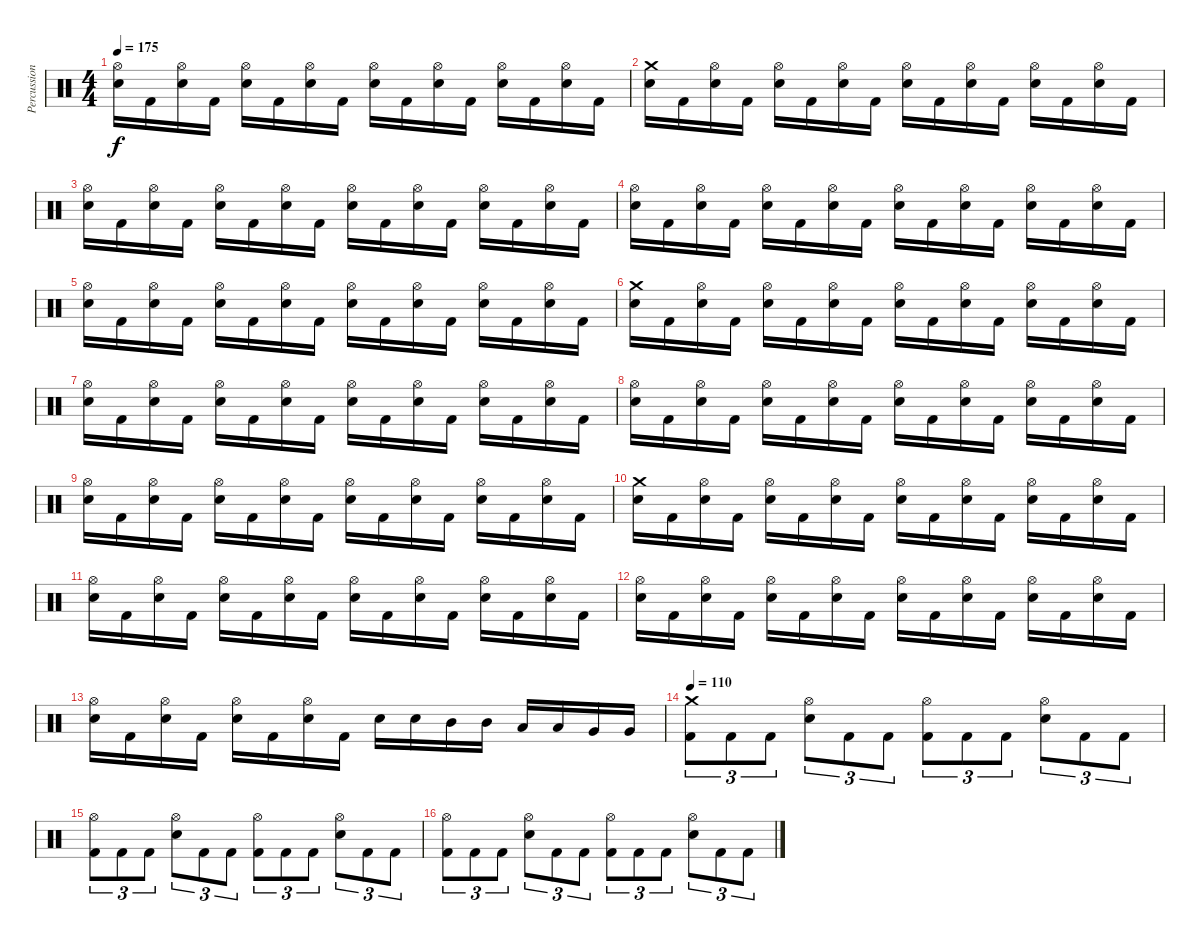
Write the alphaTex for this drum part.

\track ("Percussion" "Percussion") {instrument percussion}
\staff {score}
\articulation defaults
\ts (4 4)
\tempo 175
\clef neutral
\ks c
("Hi-Hat (open)" "Snare (hit) 2").16{dy f} "Kick (hit) 2".16 ("Hi-Hat (open)" "Snare (hit) 2").16 "Kick (hit) 2".16 ("Hi-Hat (open)" "Snare (hit) 2").16 "Kick (hit) 2".16 ("Hi-Hat (open)" "Snare (hit) 2").16 "Kick (hit) 2".16 ("Hi-Hat (open)" "Snare (hit) 2").16 "Kick (hit) 2".16 ("Hi-Hat (open)" "Snare (hit) 2").16 "Kick (hit) 2".16 ("Hi-Hat (open)" "Snare (hit) 2").16 "Kick (hit) 2".16 ("Hi-Hat (open)" "Snare (hit) 2").16 "Kick (hit) 2".16 |
("Crash medium (hit)" "Snare (hit) 2").16 "Kick (hit) 2".16 ("Hi-Hat (open)" "Snare (hit) 2").16 "Kick (hit) 2".16 ("Hi-Hat (open)" "Snare (hit) 2").16 "Kick (hit) 2".16 ("Hi-Hat (open)" "Snare (hit) 2").16 "Kick (hit) 2".16 ("Hi-Hat (open)" "Snare (hit) 2").16 "Kick (hit) 2".16 ("Hi-Hat (open)" "Snare (hit) 2").16 "Kick (hit) 2".16 ("Hi-Hat (open)" "Snare (hit) 2").16 "Kick (hit) 2".16 ("Hi-Hat (open)" "Snare (hit) 2").16 "Kick (hit) 2".16 |
("Hi-Hat (open)" "Snare (hit) 2").16 "Kick (hit) 2".16 ("Hi-Hat (open)" "Snare (hit) 2").16 "Kick (hit) 2".16 ("Hi-Hat (open)" "Snare (hit) 2").16 "Kick (hit) 2".16 ("Hi-Hat (open)" "Snare (hit) 2").16 "Kick (hit) 2".16 ("Hi-Hat (open)" "Snare (hit) 2").16 "Kick (hit) 2".16 ("Hi-Hat (open)" "Snare (hit) 2").16 "Kick (hit) 2".16 ("Hi-Hat (open)" "Snare (hit) 2").16 "Kick (hit) 2".16 ("Hi-Hat (open)" "Snare (hit) 2").16 "Kick (hit) 2".16 |
("Hi-Hat (open)" "Snare (hit) 2").16 "Kick (hit) 2".16 ("Hi-Hat (open)" "Snare (hit) 2").16 "Kick (hit) 2".16 ("Hi-Hat (open)" "Snare (hit) 2").16 "Kick (hit) 2".16 ("Hi-Hat (open)" "Snare (hit) 2").16 "Kick (hit) 2".16 ("Hi-Hat (open)" "Snare (hit) 2").16 "Kick (hit) 2".16 ("Hi-Hat (open)" "Snare (hit) 2").16 "Kick (hit) 2".16 ("Hi-Hat (open)" "Snare (hit) 2").16 "Kick (hit) 2".16 ("Hi-Hat (open)" "Snare (hit) 2").16 "Kick (hit) 2".16 |
("Hi-Hat (open)" "Snare (hit) 2").16 "Kick (hit) 2".16 ("Hi-Hat (open)" "Snare (hit) 2").16 "Kick (hit) 2".16 ("Hi-Hat (open)" "Snare (hit) 2").16 "Kick (hit) 2".16 ("Hi-Hat (open)" "Snare (hit) 2").16 "Kick (hit) 2".16 ("Hi-Hat (open)" "Snare (hit) 2").16 "Kick (hit) 2".16 ("Hi-Hat (open)" "Snare (hit) 2").16 "Kick (hit) 2".16 ("Hi-Hat (open)" "Snare (hit) 2").16 "Kick (hit) 2".16 ("Hi-Hat (open)" "Snare (hit) 2").16 "Kick (hit) 2".16 |
("Crash medium (hit)" "Snare (hit) 2").16 "Kick (hit) 2".16 ("Hi-Hat (open)" "Snare (hit) 2").16 "Kick (hit) 2".16 ("Hi-Hat (open)" "Snare (hit) 2").16 "Kick (hit) 2".16 ("Hi-Hat (open)" "Snare (hit) 2").16 "Kick (hit) 2".16 ("Hi-Hat (open)" "Snare (hit) 2").16 "Kick (hit) 2".16 ("Hi-Hat (open)" "Snare (hit) 2").16 "Kick (hit) 2".16 ("Hi-Hat (open)" "Snare (hit) 2").16 "Kick (hit) 2".16 ("Hi-Hat (open)" "Snare (hit) 2").16 "Kick (hit) 2".16 |
("Hi-Hat (open)" "Snare (hit) 2").16 "Kick (hit) 2".16 ("Hi-Hat (open)" "Snare (hit) 2").16 "Kick (hit) 2".16 ("Hi-Hat (open)" "Snare (hit) 2").16 "Kick (hit) 2".16 ("Hi-Hat (open)" "Snare (hit) 2").16 "Kick (hit) 2".16 ("Hi-Hat (open)" "Snare (hit) 2").16 "Kick (hit) 2".16 ("Hi-Hat (open)" "Snare (hit) 2").16 "Kick (hit) 2".16 ("Hi-Hat (open)" "Snare (hit) 2").16 "Kick (hit) 2".16 ("Hi-Hat (open)" "Snare (hit) 2").16 "Kick (hit) 2".16 |
("Hi-Hat (open)" "Snare (hit) 2").16 "Kick (hit) 2".16 ("Hi-Hat (open)" "Snare (hit) 2").16 "Kick (hit) 2".16 ("Hi-Hat (open)" "Snare (hit) 2").16 "Kick (hit) 2".16 ("Hi-Hat (open)" "Snare (hit) 2").16 "Kick (hit) 2".16 ("Hi-Hat (open)" "Snare (hit) 2").16 "Kick (hit) 2".16 ("Hi-Hat (open)" "Snare (hit) 2").16 "Kick (hit) 2".16 ("Hi-Hat (open)" "Snare (hit) 2").16 "Kick (hit) 2".16 ("Hi-Hat (open)" "Snare (hit) 2").16 "Kick (hit) 2".16 |
("Hi-Hat (open)" "Snare (hit) 2").16 "Kick (hit) 2".16 ("Hi-Hat (open)" "Snare (hit) 2").16 "Kick (hit) 2".16 ("Hi-Hat (open)" "Snare (hit) 2").16 "Kick (hit) 2".16 ("Hi-Hat (open)" "Snare (hit) 2").16 "Kick (hit) 2".16 ("Hi-Hat (open)" "Snare (hit) 2").16 "Kick (hit) 2".16 ("Hi-Hat (open)" "Snare (hit) 2").16 "Kick (hit) 2".16 ("Hi-Hat (open)" "Snare (hit) 2").16 "Kick (hit) 2".16 ("Hi-Hat (open)" "Snare (hit) 2").16 "Kick (hit) 2".16 |
("Crash medium (hit)" "Snare (hit) 2").16 "Kick (hit) 2".16 ("Hi-Hat (open)" "Snare (hit) 2").16 "Kick (hit) 2".16 ("Hi-Hat (open)" "Snare (hit) 2").16 "Kick (hit) 2".16 ("Hi-Hat (open)" "Snare (hit) 2").16 "Kick (hit) 2".16 ("Hi-Hat (open)" "Snare (hit) 2").16 "Kick (hit) 2".16 ("Hi-Hat (open)" "Snare (hit) 2").16 "Kick (hit) 2".16 ("Hi-Hat (open)" "Snare (hit) 2").16 "Kick (hit) 2".16 ("Hi-Hat (open)" "Snare (hit) 2").16 "Kick (hit) 2".16 |
("Hi-Hat (open)" "Snare (hit) 2").16 "Kick (hit) 2".16 ("Hi-Hat (open)" "Snare (hit) 2").16 "Kick (hit) 2".16 ("Hi-Hat (open)" "Snare (hit) 2").16 "Kick (hit) 2".16 ("Hi-Hat (open)" "Snare (hit) 2").16 "Kick (hit) 2".16 ("Hi-Hat (open)" "Snare (hit) 2").16 "Kick (hit) 2".16 ("Hi-Hat (open)" "Snare (hit) 2").16 "Kick (hit) 2".16 ("Hi-Hat (open)" "Snare (hit) 2").16 "Kick (hit) 2".16 ("Hi-Hat (open)" "Snare (hit) 2").16 "Kick (hit) 2".16 |
("Hi-Hat (open)" "Snare (hit) 2").16 "Kick (hit) 2".16 ("Hi-Hat (open)" "Snare (hit) 2").16 "Kick (hit) 2".16 ("Hi-Hat (open)" "Snare (hit) 2").16 "Kick (hit) 2".16 ("Hi-Hat (open)" "Snare (hit) 2").16 "Kick (hit) 2".16 ("Hi-Hat (open)" "Snare (hit) 2").16 "Kick (hit) 2".16 ("Hi-Hat (open)" "Snare (hit) 2").16 "Kick (hit) 2".16 ("Hi-Hat (open)" "Snare (hit) 2").16 "Kick (hit) 2".16 ("Hi-Hat (open)" "Snare (hit) 2").16 "Kick (hit) 2".16 |
("Hi-Hat (open)" "Snare (hit) 2").16 "Kick (hit) 2".16 ("Hi-Hat (open)" "Snare (hit) 2").16 "Kick (hit) 2".16 ("Hi-Hat (open)" "Snare (hit) 2").16 "Kick (hit) 2".16 ("Hi-Hat (open)" "Snare (hit) 2").16 "Kick (hit) 2".16 "Snare (hit) 2".16 "Snare (hit) 2".16 "Mid Tom (hit)".16 "Mid Tom (hit)".16 "Low Tom (hit)".16 "Low Tom (hit)".16 "Very Low Tom (hit)".16 "Very Low Tom (hit)".16 |
\tempo 110
("Crash medium (hit)" "Kick (hit) 2").8{tu (3 2)} "Kick (hit) 2".8{tu (3 2)} "Kick (hit) 2".8{tu (3 2)} ("Hi-Hat (open)" "Snare (hit) 2").8{tu (3 2)} "Kick (hit) 2".8{tu (3 2)} "Kick (hit) 2".8{tu (3 2)} ("Hi-Hat (open)" "Kick (hit) 2").8{tu (3 2)} "Kick (hit) 2".8{tu (3 2)} "Kick (hit) 2".8{tu (3 2)} ("Hi-Hat (open)" "Snare (hit) 2").8{tu (3 2)} "Kick (hit) 2".8{tu (3 2)} "Kick (hit) 2".8{tu (3 2)} |
("Hi-Hat (open)" "Kick (hit) 2").8{tu (3 2)} "Kick (hit) 2".8{tu (3 2)} "Kick (hit) 2".8{tu (3 2)} ("Hi-Hat (open)" "Snare (hit) 2").8{tu (3 2)} "Kick (hit) 2".8{tu (3 2)} "Kick (hit) 2".8{tu (3 2)} ("Hi-Hat (open)" "Kick (hit) 2").8{tu (3 2)} "Kick (hit) 2".8{tu (3 2)} "Kick (hit) 2".8{tu (3 2)} ("Hi-Hat (open)" "Snare (hit) 2").8{tu (3 2)} "Kick (hit) 2".8{tu (3 2)} "Kick (hit) 2".8{tu (3 2)} |
("Hi-Hat (open)" "Kick (hit) 2").8{tu (3 2)} "Kick (hit) 2".8{tu (3 2)} "Kick (hit) 2".8{tu (3 2)} ("Hi-Hat (open)" "Snare (hit) 2").8{tu (3 2)} "Kick (hit) 2".8{tu (3 2)} "Kick (hit) 2".8{tu (3 2)} ("Hi-Hat (open)" "Kick (hit) 2").8{tu (3 2)} "Kick (hit) 2".8{tu (3 2)} "Kick (hit) 2".8{tu (3 2)} ("Hi-Hat (open)" "Snare (hit) 2").8{tu (3 2)} "Kick (hit) 2".8{tu (3 2)} "Kick (hit) 2".8{tu (3 2)}
